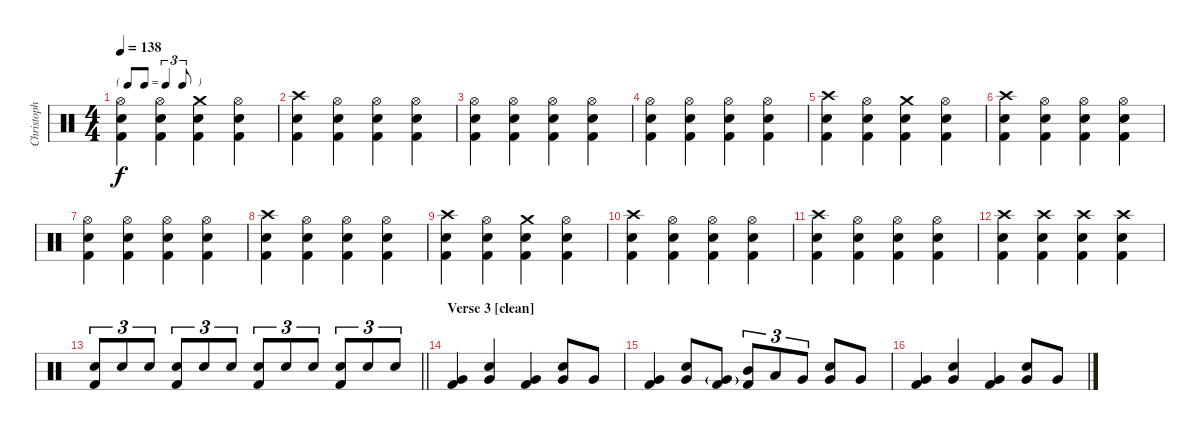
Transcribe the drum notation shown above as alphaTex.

\track ("Christoph Schneider" "Christoph ") {instrument percussion}
\staff {score}
\articulation defaults
\ts (4 4)
\tf triplet8th
\tempo 138
\clef neutral
\ks c
("Hi-Hat (open)" "Electric Snare (hit)" "Kick (hit) 2").4{dy f} ("Hi-Hat (open)" "Electric Snare (hit)" "Kick (hit) 2").4 ("Crash medium (hit)" "Electric Snare (hit)" "Kick (hit) 2").4 ("Hi-Hat (open)" "Electric Snare (hit)" "Kick (hit) 2").4 |
("Crash high (hit)" "Electric Snare (hit)" "Kick (hit) 2").4 ("Hi-Hat (open)" "Electric Snare (hit)" "Kick (hit) 2").4 ("Hi-Hat (open)" "Electric Snare (hit)" "Kick (hit) 2").4 ("Hi-Hat (open)" "Electric Snare (hit)" "Kick (hit) 2").4 |
("Hi-Hat (open)" "Electric Snare (hit)" "Kick (hit) 2").4 ("Hi-Hat (open)" "Electric Snare (hit)" "Kick (hit) 2").4 ("Hi-Hat (open)" "Electric Snare (hit)" "Kick (hit) 2").4 ("Hi-Hat (open)" "Electric Snare (hit)" "Kick (hit) 2").4 |
("Hi-Hat (open)" "Electric Snare (hit)" "Kick (hit) 2").4 ("Hi-Hat (open)" "Electric Snare (hit)" "Kick (hit) 2").4 ("Hi-Hat (open)" "Electric Snare (hit)" "Kick (hit) 2").4 ("Hi-Hat (open)" "Electric Snare (hit)" "Kick (hit) 2").4 |
("Crash high (hit)" "Electric Snare (hit)" "Kick (hit) 2").4 ("Hi-Hat (open)" "Electric Snare (hit)" "Kick (hit) 2").4 ("Crash medium (hit)" "Electric Snare (hit)" "Kick (hit) 2").4 ("Hi-Hat (open)" "Electric Snare (hit)" "Kick (hit) 2").4 |
("Crash high (hit)" "Electric Snare (hit)" "Kick (hit) 2").4 ("Hi-Hat (open)" "Electric Snare (hit)" "Kick (hit) 2").4 ("Hi-Hat (open)" "Electric Snare (hit)" "Kick (hit) 2").4 ("Hi-Hat (open)" "Electric Snare (hit)" "Kick (hit) 2").4 |
("Hi-Hat (open)" "Electric Snare (hit)" "Kick (hit) 2").4 ("Hi-Hat (open)" "Electric Snare (hit)" "Kick (hit) 2").4 ("Hi-Hat (open)" "Electric Snare (hit)" "Kick (hit) 2").4 ("Hi-Hat (open)" "Electric Snare (hit)" "Kick (hit) 2").4 |
("Crash high (hit)" "Electric Snare (hit)" "Kick (hit) 2").4 ("Hi-Hat (open)" "Electric Snare (hit)" "Kick (hit) 2").4 ("Hi-Hat (open)" "Electric Snare (hit)" "Kick (hit) 2").4 ("Hi-Hat (open)" "Electric Snare (hit)" "Kick (hit) 2").4 |
("Crash high (hit)" "Electric Snare (hit)" "Kick (hit) 2").4 ("Hi-Hat (open)" "Electric Snare (hit)" "Kick (hit) 2").4 ("Crash medium (hit)" "Electric Snare (hit)" "Kick (hit) 2").4 ("Hi-Hat (open)" "Electric Snare (hit)" "Kick (hit) 2").4 |
("Crash high (hit)" "Electric Snare (hit)" "Kick (hit) 2").4 ("Hi-Hat (open)" "Electric Snare (hit)" "Kick (hit) 2").4 ("Hi-Hat (open)" "Electric Snare (hit)" "Kick (hit) 2").4 ("Hi-Hat (open)" "Electric Snare (hit)" "Kick (hit) 2").4 |
("Crash high (hit)" "Electric Snare (hit)" "Kick (hit) 2").4 ("Hi-Hat (open)" "Electric Snare (hit)" "Kick (hit) 2").4 ("Hi-Hat (open)" "Electric Snare (hit)" "Kick (hit) 2").4 ("Hi-Hat (open)" "Electric Snare (hit)" "Kick (hit) 2").4 |
("Crash high (hit)" "Electric Snare (hit)" "Kick (hit) 2").4 ("Crash high (hit)" "Electric Snare (hit)" "Kick (hit) 2").4 ("Crash high (hit)" "Electric Snare (hit)" "Kick (hit) 2").4 ("Crash high (hit)" "Electric Snare (hit)" "Kick (hit) 2").4 |
\barLineRight lightlight
("Electric Snare (hit)" "Kick (hit) 2").8{tu (3 2)} "Electric Snare (hit)".8{tu (3 2)} "Electric Snare (hit)".8{tu (3 2)} ("Electric Snare (hit)" "Kick (hit) 2").8{tu (3 2)} "Electric Snare (hit)".8{tu (3 2)} "Electric Snare (hit)".8{tu (3 2)} ("Electric Snare (hit)" "Kick (hit) 2").8{tu (3 2)} "Electric Snare (hit)".8{tu (3 2)} "Electric Snare (hit)".8{tu (3 2)} ("Electric Snare (hit)" "Kick (hit) 2").8{tu (3 2)} "Electric Snare (hit)".8{tu (3 2)} "Electric Snare (hit)".8{tu (3 2)} |
\section ("" "Verse 3 [clean]")
("Very Low Tom (hit)" "Kick (hit) 2").4 ("Very Low Tom (hit)" "Electric Snare (hit)").4 ("Very Low Tom (hit)" "Kick (hit) 2").4 ("Very Low Tom (hit)" "Electric Snare (hit)").8 "Very Low Tom (hit)".8 |
("Very Low Tom (hit)" "Kick (hit) 2").4 ("Very Low Tom (hit)" "Electric Snare (hit)").8 ("Very Low Tom (hit)"{g} "Kick (hit) 2").8 ("Mid Tom (hit)" "Kick (hit) 2").8{tu (3 2)} "Low Tom (hit)".8{tu (3 2)} "Very Low Tom (hit)".8{tu (3 2)} ("Very Low Tom (hit)" "Electric Snare (hit)").8 "Very Low Tom (hit)".8 |
("Very Low Tom (hit)" "Kick (hit) 2").4 ("Very Low Tom (hit)" "Electric Snare (hit)").4 ("Very Low Tom (hit)" "Kick (hit) 2").4 ("Very Low Tom (hit)" "Electric Snare (hit)").8 "Very Low Tom (hit)".8
